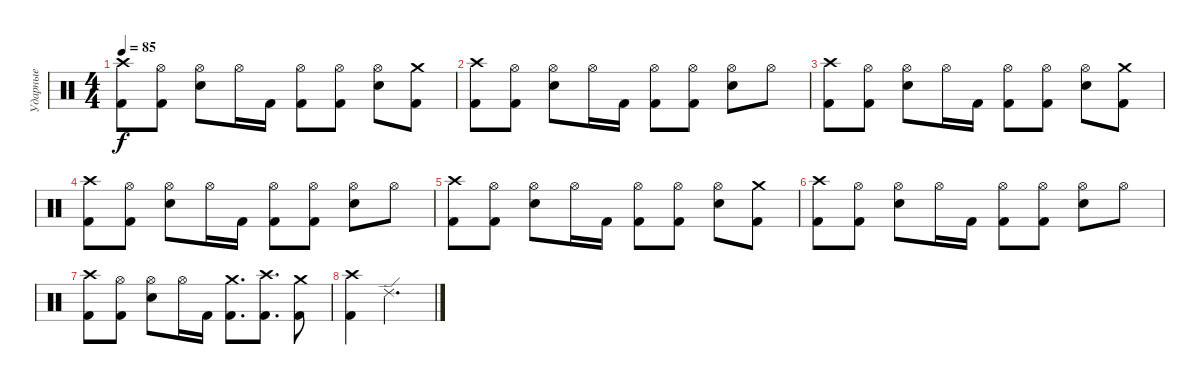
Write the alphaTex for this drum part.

\track ("Ударные" "Ударные") {instrument percussion}
\staff {score}
\articulation defaults
\ts (4 4)
\tempo 85
\clef neutral
\ks c
("Crash high (hit)" "Kick (hit) 2").8{dy f} ("Hi-Hat (open)" "Kick (hit) 2").8 ("Hi-Hat (open)" "Snare (hit) 2").8 "Hi-Hat (open)".16 "Kick (hit) 2".16 ("Hi-Hat (open)" "Kick (hit) 2").8 ("Hi-Hat (open)" "Kick (hit) 2").8 ("Hi-Hat (open)" "Snare (hit) 2").8 ("Crash medium (hit)" "Kick (hit) 2").8 |
("Crash high (hit)" "Kick (hit) 2").8 ("Hi-Hat (open)" "Kick (hit) 2").8 ("Hi-Hat (open)" "Snare (hit) 2").8 "Hi-Hat (open)".16 "Kick (hit) 2".16 ("Hi-Hat (open)" "Kick (hit) 2").8 ("Hi-Hat (open)" "Kick (hit) 2").8 ("Hi-Hat (open)" "Snare (hit) 2").8 "Hi-Hat (open)".8 |
("Crash high (hit)" "Kick (hit) 2").8 ("Hi-Hat (open)" "Kick (hit) 2").8 ("Hi-Hat (open)" "Snare (hit) 2").8 "Hi-Hat (open)".16 "Kick (hit) 2".16 ("Hi-Hat (open)" "Kick (hit) 2").8 ("Hi-Hat (open)" "Kick (hit) 2").8 ("Hi-Hat (open)" "Snare (hit) 2").8 ("Crash medium (hit)" "Kick (hit) 2").8 |
("Crash high (hit)" "Kick (hit) 2").8 ("Hi-Hat (open)" "Kick (hit) 2").8 ("Hi-Hat (open)" "Snare (hit) 2").8 "Hi-Hat (open)".16 "Kick (hit) 2".16 ("Hi-Hat (open)" "Kick (hit) 2").8 ("Hi-Hat (open)" "Kick (hit) 2").8 ("Hi-Hat (open)" "Snare (hit) 2").8 "Hi-Hat (open)".8 |
("Crash high (hit)" "Kick (hit) 2").8 ("Hi-Hat (open)" "Kick (hit) 2").8 ("Hi-Hat (open)" "Snare (hit) 2").8 "Hi-Hat (open)".16 "Kick (hit) 2".16 ("Hi-Hat (open)" "Kick (hit) 2").8 ("Hi-Hat (open)" "Kick (hit) 2").8 ("Hi-Hat (open)" "Snare (hit) 2").8 ("Crash medium (hit)" "Kick (hit) 2").8 |
("Crash high (hit)" "Kick (hit) 2").8 ("Hi-Hat (open)" "Kick (hit) 2").8 ("Hi-Hat (open)" "Snare (hit) 2").8 "Hi-Hat (open)".16 "Kick (hit) 2".16 ("Hi-Hat (open)" "Kick (hit) 2").8 ("Hi-Hat (open)" "Kick (hit) 2").8 ("Hi-Hat (open)" "Snare (hit) 2").8 "Hi-Hat (open)".8 |
("Crash high (hit)" "Kick (hit) 2").8 ("Hi-Hat (open)" "Kick (hit) 2").8 ("Hi-Hat (open)" "Snare (hit) 2").8 "Hi-Hat (open)".16 "Kick (hit) 2".16 ("Crash medium (hit)" "Kick (hit) 2").8{d} ("Crash high (hit)" "Kick (hit) 2").8{d} ("Crash medium (hit)" "Kick (hit) 2").8 |
("Crash high (hit)" "Kick (hit) 2").4 "Ride (edge) 2".2{d}
